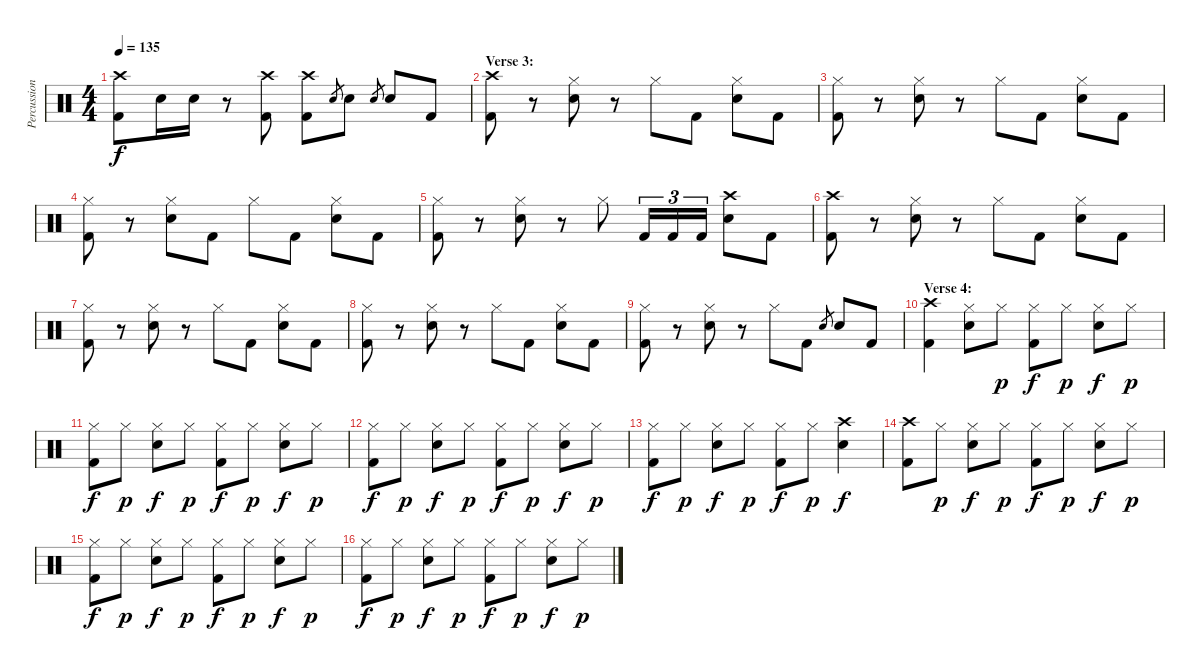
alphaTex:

\track ("Percussion" "Percussion") {instrument percussion}
\staff {score}
\articulation defaults
\ts (4 4)
\tempo 135
\clef neutral
\ks c
("Crash high (hit)" "Kick (hit) 2").8{dy f} "Snare (hit) 2".16 "Snare (hit) 2".16 r.8 ("Crash high (hit)" "Kick (hit) 2").8 ("Crash high (hit)" "Kick (hit) 2").8 "Snare (hit) 2".8{gr} "Snare (hit) 2".8 "Snare (hit) 2".8{gr} "Snare (hit) 2".8 "Kick (hit) 2".8 |
\section ("" "Verse 3:")
("Crash high (hit)" "Kick (hit) 2").8 r.8 ("Hi-Hat (closed)" "Snare (hit) 2").8 r.8 "Hi-Hat (closed)".8 "Kick (hit) 2".8 ("Hi-Hat (closed)" "Snare (hit) 2").8 "Kick (hit) 2".8 |
("Hi-Hat (closed)" "Kick (hit) 2").8 r.8 ("Hi-Hat (closed)" "Snare (hit) 2").8 r.8 "Hi-Hat (closed)".8 "Kick (hit) 2".8 ("Hi-Hat (closed)" "Snare (hit) 2").8 "Kick (hit) 2".8 |
("Hi-Hat (closed)" "Kick (hit) 2").8 r.8 ("Hi-Hat (closed)" "Snare (hit) 2").8 "Kick (hit) 2".8 "Hi-Hat (closed)".8 "Kick (hit) 2".8 ("Hi-Hat (closed)" "Snare (hit) 2").8 "Kick (hit) 2".8 |
("Hi-Hat (closed)" "Kick (hit) 2").8 r.8 ("Hi-Hat (closed)" "Snare (hit) 2").8 r.8 "Hi-Hat (closed)".8 "Kick (hit) 2".16{tu (3 2)} "Kick (hit) 2".16{tu (3 2)} "Kick (hit) 2".16{tu (3 2)} ("Crash high (hit)" "Snare (hit) 2").8 "Kick (hit) 2".8 |
("Crash high (hit)" "Kick (hit) 2").8 r.8 ("Hi-Hat (closed)" "Snare (hit) 2").8 r.8 "Hi-Hat (closed)".8 "Kick (hit) 2".8 ("Hi-Hat (closed)" "Snare (hit) 2").8 "Kick (hit) 2".8 |
("Hi-Hat (closed)" "Kick (hit) 2").8 r.8 ("Hi-Hat (closed)" "Snare (hit) 2").8 r.8 "Hi-Hat (closed)".8 "Kick (hit) 2".8 ("Hi-Hat (closed)" "Snare (hit) 2").8 "Kick (hit) 2".8 |
("Hi-Hat (closed)" "Kick (hit) 2").8 r.8 ("Hi-Hat (closed)" "Snare (hit) 2").8 r.8 "Hi-Hat (closed)".8 "Kick (hit) 2".8 ("Hi-Hat (closed)" "Snare (hit) 2").8 "Kick (hit) 2".8 |
("Hi-Hat (closed)" "Kick (hit) 2").8 r.8 ("Hi-Hat (closed)" "Snare (hit) 2").8 r.8 "Hi-Hat (closed)".8 "Kick (hit) 2".8 "Snare (hit) 2".8{gr} "Snare (hit) 2".8 "Kick (hit) 2".8 |
\section ("" "Verse 4:")
("Crash high (hit)" "Kick (hit) 2").4 ("Hi-Hat (closed)" "Snare (hit) 2").8 "Hi-Hat (closed)".8{dy p} ("Hi-Hat (closed)" "Kick (hit) 2").8{dy f} "Hi-Hat (closed)".8{dy p} ("Hi-Hat (closed)" "Snare (hit) 2").8{dy f} "Hi-Hat (closed)".8{dy p} |
("Hi-Hat (closed)" "Kick (hit) 2").8{dy f} "Hi-Hat (closed)".8{dy p} ("Hi-Hat (closed)" "Snare (hit) 2").8{dy f} "Hi-Hat (closed)".8{dy p} ("Hi-Hat (closed)" "Kick (hit) 2").8{dy f} "Hi-Hat (closed)".8{dy p} ("Hi-Hat (closed)" "Snare (hit) 2").8{dy f} "Hi-Hat (closed)".8{dy p} |
("Hi-Hat (closed)" "Kick (hit) 2").8{dy f} "Hi-Hat (closed)".8{dy p} ("Hi-Hat (closed)" "Snare (hit) 2").8{dy f} "Hi-Hat (closed)".8{dy p} ("Hi-Hat (closed)" "Kick (hit) 2").8{dy f} "Hi-Hat (closed)".8{dy p} ("Hi-Hat (closed)" "Snare (hit) 2").8{dy f} "Hi-Hat (closed)".8{dy p} |
("Hi-Hat (closed)" "Kick (hit) 2").8{dy f} "Hi-Hat (closed)".8{dy p} ("Hi-Hat (closed)" "Snare (hit) 2").8{dy f} "Hi-Hat (closed)".8{dy p} ("Hi-Hat (closed)" "Kick (hit) 2").8{dy f} "Hi-Hat (closed)".8{dy p} ("Crash high (hit)" "Snare (hit) 2").4{dy f} |
("Crash high (hit)" "Kick (hit) 2").8 "Hi-Hat (closed)".8{dy p} ("Hi-Hat (closed)" "Snare (hit) 2").8{dy f} "Hi-Hat (closed)".8{dy p} ("Hi-Hat (closed)" "Kick (hit) 2").8{dy f} "Hi-Hat (closed)".8{dy p} ("Hi-Hat (closed)" "Snare (hit) 2").8{dy f} "Hi-Hat (closed)".8{dy p} |
("Hi-Hat (closed)" "Kick (hit) 2").8{dy f} "Hi-Hat (closed)".8{dy p} ("Hi-Hat (closed)" "Snare (hit) 2").8{dy f} "Hi-Hat (closed)".8{dy p} ("Hi-Hat (closed)" "Kick (hit) 2").8{dy f} "Hi-Hat (closed)".8{dy p} ("Hi-Hat (closed)" "Snare (hit) 2").8{dy f} "Hi-Hat (closed)".8{dy p} |
("Hi-Hat (closed)" "Kick (hit) 2").8{dy f} "Hi-Hat (closed)".8{dy p} ("Hi-Hat (closed)" "Snare (hit) 2").8{dy f} "Hi-Hat (closed)".8{dy p} ("Hi-Hat (closed)" "Kick (hit) 2").8{dy f} "Hi-Hat (closed)".8{dy p} ("Hi-Hat (closed)" "Snare (hit) 2").8{dy f} "Hi-Hat (closed)".8{dy p}
